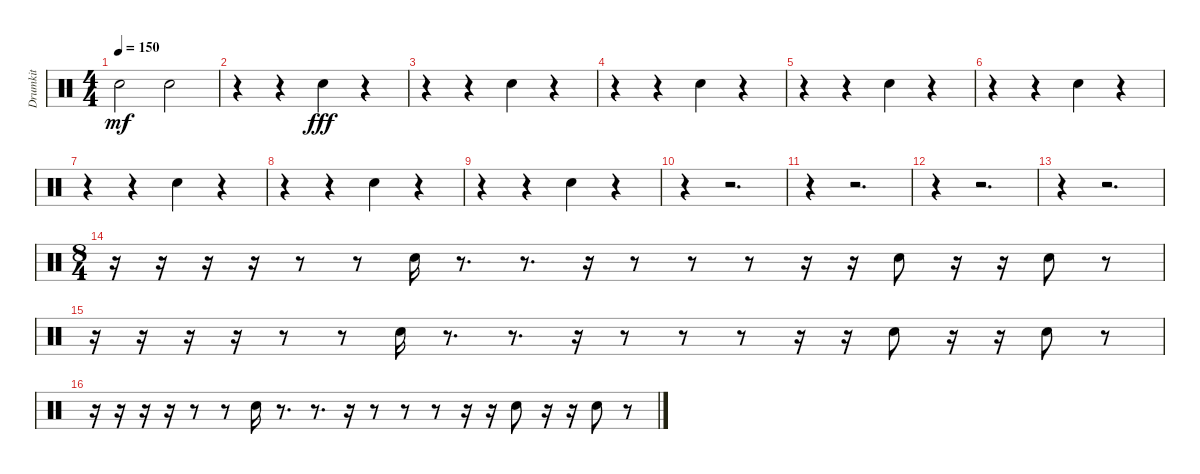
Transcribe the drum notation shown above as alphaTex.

\track ("Drumkit" "Drumkit") {instrument percussion}
\staff {score}
\articulation defaults
\ts (4 4)
\tempo 150
\clef neutral
\ks c "Snare (hit) 2".2{dy mf} "Snare (hit) 2".2
|
r.4 r.4 "Snare (hit) 2".4{dy fff} r.4 |
r.4 r.4 "Snare (hit) 2".4 r.4 |
r.4 r.4 "Snare (hit) 2".4 r.4 |
r.4 r.4 "Snare (hit) 2".4 r.4 |
r.4 r.4 "Snare (hit) 2".4 r.4 |
r.4 r.4 "Snare (hit) 2".4 r.4 |
r.4 r.4 "Snare (hit) 2".4 r.4 |
r.4 r.4 "Snare (hit) 2".4 r.4 |
r.4 r.2{d} |
r.4 r.2{d} |
r.4 r.2{d} |
r.4 r.2{d} |
\ts (8 4)
r.16 r.16 r.16 r.16 r.8 r.8 "Snare (hit) 2".16 r.8{d} r.8{d} r.16 r.8 r.8 r.8 r.16 r.16 "Snare (hit) 2".8 r.16 r.16 "Snare (hit) 2".8 r.8 |
r.16 r.16 r.16 r.16 r.8 r.8 "Snare (hit) 2".16 r.8{d} r.8{d} r.16 r.8 r.8 r.8 r.16 r.16 "Snare (hit) 2".8 r.16 r.16 "Snare (hit) 2".8 r.8 |
r.16 r.16 r.16 r.16 r.8 r.8 "Snare (hit) 2".16 r.8{d} r.8{d} r.16 r.8 r.8 r.8 r.16 r.16 "Snare (hit) 2".8 r.16 r.16 "Snare (hit) 2".8 r.8
